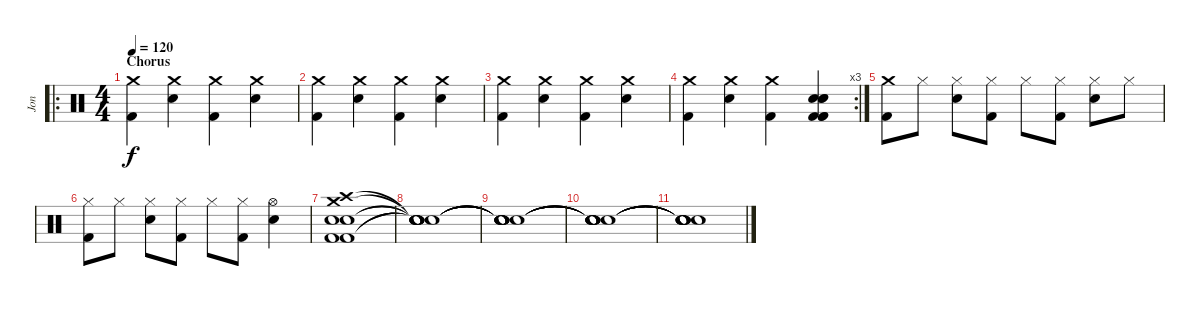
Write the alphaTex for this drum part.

\track ("Jon" "Jon") {instrument percussion}
\staff {score}
\articulation defaults
\ro
\ts (4 4)
\section ("" "Chorus")
\tempo 120
\clef neutral
\ks c
("Crash medium (hit)" "Kick (hit) 2").4{dy f} ("Crash medium (hit)" "Snare (hit) 2").4 ("Crash medium (hit)" "Kick (hit) 2").4 ("Crash medium (hit)" "Snare (hit) 2").4 |
("Crash medium (hit)" "Kick (hit) 2").4 ("Crash medium (hit)" "Snare (hit) 2").4 ("Crash medium (hit)" "Kick (hit) 2").4 ("Crash medium (hit)" "Snare (hit) 2").4 |
("Crash medium (hit)" "Kick (hit) 2").4 ("Crash medium (hit)" "Snare (hit) 2").4 ("Crash medium (hit)" "Kick (hit) 2").4 ("Crash medium (hit)" "Snare (hit) 2").4 |
\rc 3
("Crash medium (hit)" "Kick (hit) 2").4 ("Crash medium (hit)" "Snare (hit) 2").4 ("Crash medium (hit)" "Kick (hit) 2").4 ("Snare (hit) 2" "Electric Snare (hit)" "Snare (hit) 2" "Kick (hit) 2" "Kick (hit) 2" "Kick (hit) 2").4 |
("Crash medium (hit)" "Kick (hit) 2").8 "Hi-Hat (closed)".8 ("Hi-Hat (closed)" "Snare (hit) 2").8 ("Hi-Hat (closed)" "Kick (hit) 2").8 "Hi-Hat (closed)".8 ("Hi-Hat (closed)" "Kick (hit) 2").8 ("Hi-Hat (closed)" "Snare (hit) 2").8 "Hi-Hat (closed)".8 |
("Hi-Hat (closed)" "Kick (hit) 2").8 "Hi-Hat (closed)".8 ("Hi-Hat (closed)" "Snare (hit) 2").8 ("Hi-Hat (closed)" "Kick (hit) 2").8 "Hi-Hat (closed)".8 ("Hi-Hat (closed)" "Kick (hit) 2").8 ("Hi-Hat (open)" "Snare (hit) 2").4 |
("Crash medium (hit)" "Crash high (hit)" "Snare (hit) 2" "Snare (hit) 2" "Kick (hit) 2" "Kick (hit) 2").1 |
("Snare (hit)"{t} "Snare (hit)"{t} "Snare (hit)"{t} "Snare (hit)"{t} "Snare (hit)"{t} "Snare (hit)"{t}).1 |
("Snare (hit)"{t} "Snare (hit)"{t} "Snare (hit)"{t} "Snare (hit)"{t} "Snare (hit)"{t} "Snare (hit)"{t}).1 |
("Snare (hit)"{t} "Snare (hit)"{t} "Snare (hit)"{t} "Snare (hit)"{t} "Snare (hit)"{t} "Snare (hit)"{t}).1{volume 9} |
("Snare (hit)"{t} "Snare (hit)"{t} "Snare (hit)"{t} "Snare (hit)"{t} "Snare (hit)"{t} "Snare (hit)"{t}).1{volume 3}
